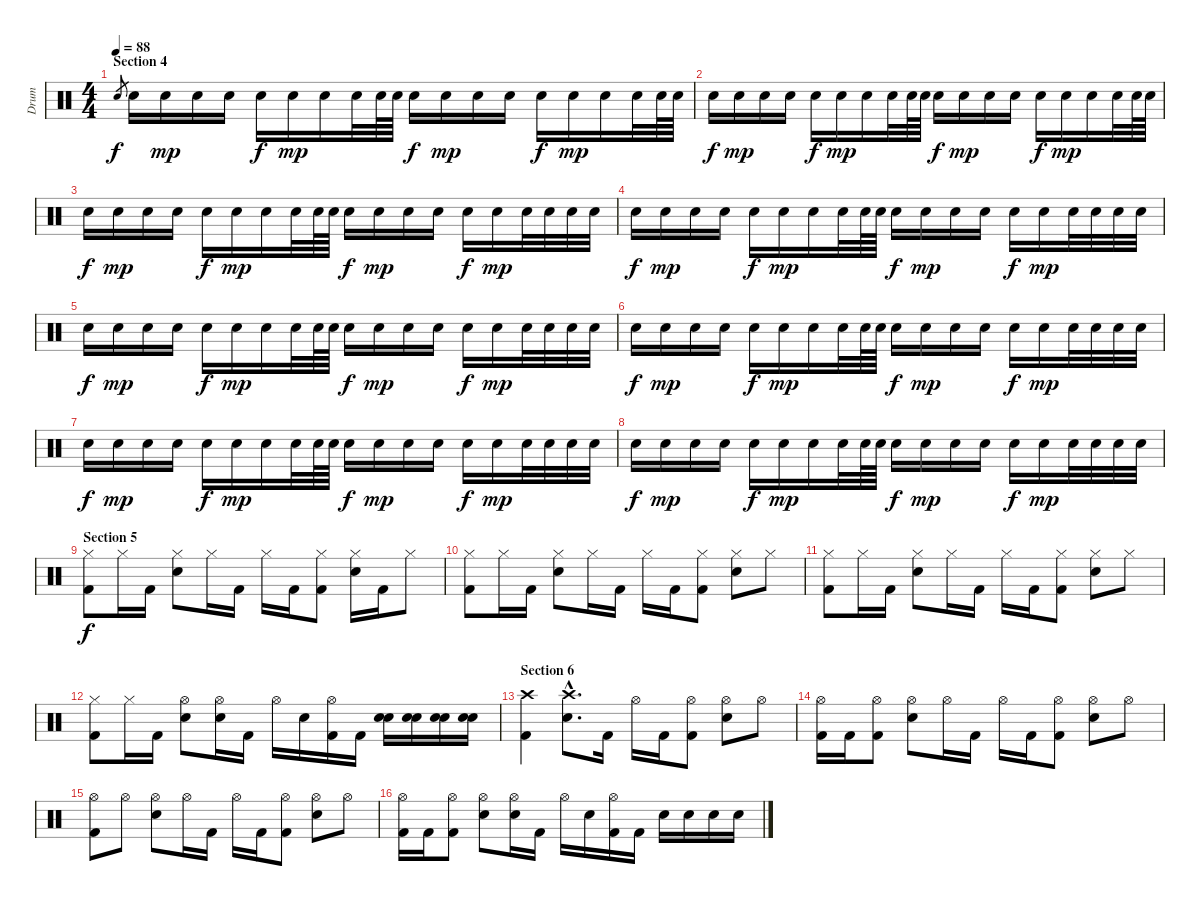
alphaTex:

\track ("Drum" "Drum") {instrument percussion}
\staff {score}
\articulation defaults
\ts (4 4)
\section ("" "Section 4")
\tempo 88
\clef neutral
\ks c "Electric Snare (hit)".8{gr dy f} "Electric Snare (hit)".16 "Electric Snare (hit)".16{dy mp} "Electric Snare (hit)".16 "Electric Snare (hit)".16 "Electric Snare (hit)".16{dy f} "Electric Snare (hit)".16{dy mp} "Electric Snare (hit)".16 "Electric Snare (hit)".32 "Electric Snare (hit)".64 "Electric Snare (hit)".64 "Electric Snare (hit)".16{dy f} "Electric Snare (hit)".16{dy mp} "Electric Snare (hit)".16 "Electric Snare (hit)".16 "Electric Snare (hit)".16{dy f} "Electric Snare (hit)".16{dy mp} "Electric Snare (hit)".16 "Electric Snare (hit)".32 "Electric Snare (hit)".64 "Electric Snare (hit)".64
|
"Electric Snare (hit)".16{dy f} "Electric Snare (hit)".16{dy mp} "Electric Snare (hit)".16 "Electric Snare (hit)".16 "Electric Snare (hit)".16{dy f} "Electric Snare (hit)".16{dy mp} "Electric Snare (hit)".16 "Electric Snare (hit)".32 "Electric Snare (hit)".64 "Electric Snare (hit)".64 "Electric Snare (hit)".16{dy f} "Electric Snare (hit)".16{dy mp} "Electric Snare (hit)".16 "Electric Snare (hit)".16 "Electric Snare (hit)".16{dy f} "Electric Snare (hit)".16{dy mp} "Electric Snare (hit)".16 "Electric Snare (hit)".32 "Electric Snare (hit)".64 "Electric Snare (hit)".64 |
"Electric Snare (hit)".16{dy f} "Electric Snare (hit)".16{dy mp} "Electric Snare (hit)".16 "Electric Snare (hit)".16 "Electric Snare (hit)".16{dy f} "Electric Snare (hit)".16{dy mp} "Electric Snare (hit)".16 "Electric Snare (hit)".32 "Electric Snare (hit)".64 "Electric Snare (hit)".64 "Electric Snare (hit)".16{dy f} "Electric Snare (hit)".16{dy mp} "Electric Snare (hit)".16 "Electric Snare (hit)".16 "Electric Snare (hit)".16{dy f} "Electric Snare (hit)".16{dy mp} "Electric Snare (hit)".32 "Electric Snare (hit)".32 "Electric Snare (hit)".32 "Electric Snare (hit)".32 |
"Electric Snare (hit)".16{dy f} "Electric Snare (hit)".16{dy mp} "Electric Snare (hit)".16 "Electric Snare (hit)".16 "Electric Snare (hit)".16{dy f} "Electric Snare (hit)".16{dy mp} "Electric Snare (hit)".16 "Electric Snare (hit)".32 "Electric Snare (hit)".64 "Electric Snare (hit)".64 "Electric Snare (hit)".16{dy f} "Electric Snare (hit)".16{dy mp} "Electric Snare (hit)".16 "Electric Snare (hit)".16 "Electric Snare (hit)".16{dy f} "Electric Snare (hit)".16{dy mp} "Electric Snare (hit)".32 "Electric Snare (hit)".32 "Electric Snare (hit)".32 "Electric Snare (hit)".32 |
"Electric Snare (hit)".16{dy f} "Electric Snare (hit)".16{dy mp} "Electric Snare (hit)".16 "Electric Snare (hit)".16 "Electric Snare (hit)".16{dy f} "Electric Snare (hit)".16{dy mp} "Electric Snare (hit)".16 "Electric Snare (hit)".32 "Electric Snare (hit)".64 "Electric Snare (hit)".64 "Electric Snare (hit)".16{dy f} "Electric Snare (hit)".16{dy mp} "Electric Snare (hit)".16 "Electric Snare (hit)".16 "Electric Snare (hit)".16{dy f} "Electric Snare (hit)".16{dy mp} "Electric Snare (hit)".32 "Electric Snare (hit)".32 "Electric Snare (hit)".32 "Electric Snare (hit)".32 |
"Electric Snare (hit)".16{dy f} "Electric Snare (hit)".16{dy mp} "Electric Snare (hit)".16 "Electric Snare (hit)".16 "Electric Snare (hit)".16{dy f} "Electric Snare (hit)".16{dy mp} "Electric Snare (hit)".16 "Electric Snare (hit)".32 "Electric Snare (hit)".64 "Electric Snare (hit)".64 "Electric Snare (hit)".16{dy f} "Electric Snare (hit)".16{dy mp} "Electric Snare (hit)".16 "Electric Snare (hit)".16 "Electric Snare (hit)".16{dy f} "Electric Snare (hit)".16{dy mp} "Electric Snare (hit)".32 "Electric Snare (hit)".32 "Electric Snare (hit)".32 "Electric Snare (hit)".32 |
"Electric Snare (hit)".16{dy f} "Electric Snare (hit)".16{dy mp} "Electric Snare (hit)".16 "Electric Snare (hit)".16 "Electric Snare (hit)".16{dy f} "Electric Snare (hit)".16{dy mp} "Electric Snare (hit)".16 "Electric Snare (hit)".32 "Electric Snare (hit)".64 "Electric Snare (hit)".64 "Electric Snare (hit)".16{dy f} "Electric Snare (hit)".16{dy mp} "Electric Snare (hit)".16 "Electric Snare (hit)".16 "Electric Snare (hit)".16{dy f} "Electric Snare (hit)".16{dy mp} "Electric Snare (hit)".32 "Electric Snare (hit)".32 "Electric Snare (hit)".32 "Electric Snare (hit)".32 |
"Electric Snare (hit)".16{dy f} "Electric Snare (hit)".16{dy mp} "Electric Snare (hit)".16 "Electric Snare (hit)".16 "Electric Snare (hit)".16{dy f} "Electric Snare (hit)".16{dy mp} "Electric Snare (hit)".16 "Electric Snare (hit)".32 "Electric Snare (hit)".64 "Electric Snare (hit)".64 "Electric Snare (hit)".16{dy f} "Electric Snare (hit)".16{dy mp} "Electric Snare (hit)".16 "Electric Snare (hit)".16 "Electric Snare (hit)".16{dy f} "Electric Snare (hit)".16{dy mp} "Electric Snare (hit)".32 "Electric Snare (hit)".32 "Electric Snare (hit)".32 "Electric Snare (hit)".32 |
\section ("" "Section 5")
("Hi-Hat (closed)" "Kick (hit) 2").8{dy f} "Hi-Hat (closed)".16 "Kick (hit) 2".16 ("Hi-Hat (closed)" "Electric Snare (hit)").8 "Hi-Hat (closed)".16 "Kick (hit) 2".16 "Hi-Hat (closed)".16 "Kick (hit) 2".16 ("Hi-Hat (closed)" "Kick (hit) 2").8 ("Hi-Hat (closed)" "Electric Snare (hit)").16 "Kick (hit) 2".16 "Hi-Hat (closed)".8 |
("Hi-Hat (closed)" "Kick (hit) 2").8 "Hi-Hat (closed)".16 "Kick (hit) 2".16 ("Hi-Hat (closed)" "Electric Snare (hit)").8 "Hi-Hat (closed)".16 "Kick (hit) 2".16 "Hi-Hat (closed)".16 "Kick (hit) 2".16 ("Hi-Hat (closed)" "Kick (hit) 2").8 ("Hi-Hat (closed)" "Electric Snare (hit)").8 "Hi-Hat (closed)".8 |
("Hi-Hat (closed)" "Kick (hit) 2").8 "Hi-Hat (closed)".16 "Kick (hit) 2".16 ("Hi-Hat (closed)" "Electric Snare (hit)").8 "Hi-Hat (closed)".16 "Kick (hit) 2".16 "Hi-Hat (closed)".16 "Kick (hit) 2".16 ("Hi-Hat (closed)" "Kick (hit) 2").8 ("Hi-Hat (closed)" "Electric Snare (hit)").8 "Hi-Hat (closed)".8 |
("Hi-Hat (closed)" "Kick (hit) 2").8 "Hi-Hat (closed)".16 "Kick (hit) 2".16 ("Hi-Hat (open)" "Electric Snare (hit)").8 ("Hi-Hat (open)" "Electric Snare (hit)").16 "Kick (hit) 2".16 "Hi-Hat (open)".16 "Electric Snare (hit)".16 ("Hi-Hat (open)" "Kick (hit) 2").16 "Kick (hit) 2".16 ("Electric Snare (hit)" "Electric Snare (hit)").16 ("Electric Snare (hit)" "Electric Snare (hit)").16 ("Electric Snare (hit)" "Electric Snare (hit)").16 ("Electric Snare (hit)" "Electric Snare (hit)").16 |
\section ("" "Section 6")
("Crash high (hit)" "Kick (hit) 2").4 ("Crash high (hit)"{hac} "Electric Snare (hit)"{hac}).8{d} "Kick (hit) 2".16 "Hi-Hat (open)".16 "Kick (hit) 2".16 ("Hi-Hat (open)" "Kick (hit) 2").8 ("Hi-Hat (open)" "Electric Snare (hit)").8 "Hi-Hat (open)".8 |
("Hi-Hat (open)" "Kick (hit) 2").16 "Kick (hit) 2".16 ("Hi-Hat (open)" "Kick (hit) 2").8 ("Hi-Hat (open)" "Electric Snare (hit)").8 "Hi-Hat (open)".16 "Kick (hit) 2".16 "Hi-Hat (open)".16 "Kick (hit) 2".16 ("Hi-Hat (open)" "Kick (hit) 2").8 ("Hi-Hat (open)" "Electric Snare (hit)").8 "Hi-Hat (open)".8 |
("Hi-Hat (open)" "Kick (hit) 2").8 "Hi-Hat (open)".8 ("Hi-Hat (open)" "Electric Snare (hit)").8 "Hi-Hat (open)".16 "Kick (hit) 2".16 "Hi-Hat (open)".16 "Kick (hit) 2".16 ("Hi-Hat (open)" "Kick (hit) 2").8 ("Hi-Hat (open)" "Electric Snare (hit)").8 "Hi-Hat (open)".8 |
("Hi-Hat (open)" "Kick (hit) 2").16 "Kick (hit) 2".16 ("Hi-Hat (open)" "Kick (hit) 2").8 ("Hi-Hat (open)" "Electric Snare (hit)").8 ("Hi-Hat (open)" "Electric Snare (hit)").16 "Kick (hit) 2".16 "Hi-Hat (open)".16 "Electric Snare (hit)".16 ("Hi-Hat (open)" "Kick (hit) 2").16 "Kick (hit) 2".16 "Electric Snare (hit)".16 "Electric Snare (hit)".16 "Electric Snare (hit)".16 "Electric Snare (hit)".16
